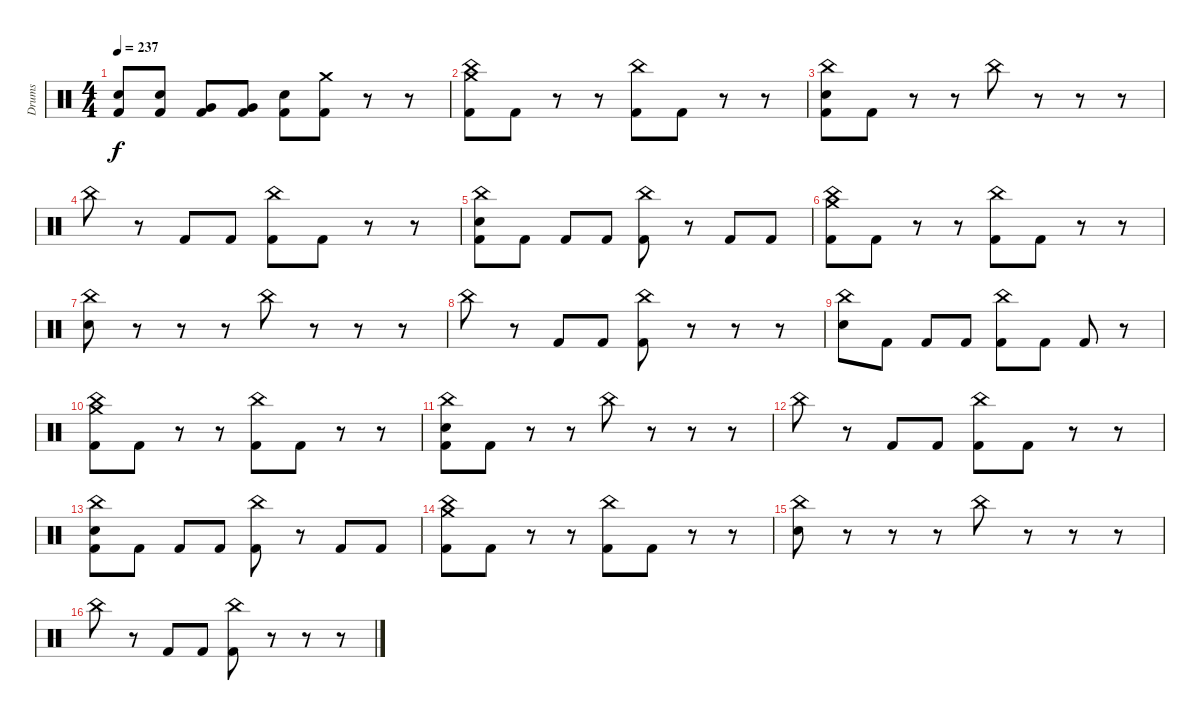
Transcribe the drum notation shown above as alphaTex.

\track ("Drums" "Drums") {instrument percussion}
\staff {score}
\articulation defaults
\ts (4 4)
\tempo 237
\clef neutral
\ks c
("Electric Snare (hit)" "Kick (hit) 2").8{dy f} ("Electric Snare (hit)" "Kick (hit) 2").8 ("Very Low Tom (hit)" "Kick (hit) 2").8 ("Very Low Tom (hit)" "Kick (hit) 2").8 ("Electric Snare (hit)" "Kick (hit) 2").8 ("Crash medium (hit)" "Kick (hit) 2").8 r.8 r.8 |
("Crash medium (hit)" "China (hit)" "Kick (hit) 2").8 "Kick (hit) 2".8 r.8 r.8 ("China (hit)" "Kick (hit) 2").8 "Kick (hit) 2".8 r.8 r.8 |
("China (hit)" "Electric Snare (hit)" "Kick (hit) 2").8 "Kick (hit) 2".8 r.8 r.8 "China (hit)".8 r.8 r.8 r.8 |
"China (hit)".8 r.8 "Kick (hit) 2".8 "Kick (hit) 2".8 ("China (hit)" "Kick (hit) 2").8 "Kick (hit) 2".8 r.8 r.8 |
("China (hit)" "Electric Snare (hit)" "Kick (hit) 2").8 "Kick (hit) 2".8 "Kick (hit) 2".8 "Kick (hit) 2".8 ("China (hit)" "Kick (hit) 2").8 r.8 "Kick (hit) 2".8 "Kick (hit) 2".8 |
("Crash medium (hit)" "China (hit)" "Kick (hit) 2").8 "Kick (hit) 2".8 r.8 r.8 ("China (hit)" "Kick (hit) 2").8 "Kick (hit) 2".8 r.8 r.8 |
("China (hit)" "Electric Snare (hit)").8 r.8 r.8 r.8 "China (hit)".8 r.8 r.8 r.8 |
"China (hit)".8 r.8 "Kick (hit) 2".8 "Kick (hit) 2".8 ("China (hit)" "Kick (hit) 2").8 r.8 r.8 r.8 |
("China (hit)" "Electric Snare (hit)").8 "Kick (hit) 2".8 "Kick (hit) 2".8 "Kick (hit) 2".8 ("China (hit)" "Kick (hit) 2").8 "Kick (hit) 2".8 "Kick (hit) 2".8 r.8 |
("Crash medium (hit)" "China (hit)" "Kick (hit) 2").8 "Kick (hit) 2".8 r.8 r.8 ("China (hit)" "Kick (hit) 2").8 "Kick (hit) 2".8 r.8 r.8 |
("China (hit)" "Electric Snare (hit)" "Kick (hit) 2").8 "Kick (hit) 2".8 r.8 r.8 "China (hit)".8 r.8 r.8 r.8 |
"China (hit)".8 r.8 "Kick (hit) 2".8 "Kick (hit) 2".8 ("China (hit)" "Kick (hit) 2").8 "Kick (hit) 2".8 r.8 r.8 |
("China (hit)" "Electric Snare (hit)" "Kick (hit) 2").8 "Kick (hit) 2".8 "Kick (hit) 2".8 "Kick (hit) 2".8 ("China (hit)" "Kick (hit) 2").8 r.8 "Kick (hit) 2".8 "Kick (hit) 2".8 |
("Crash medium (hit)" "China (hit)" "Kick (hit) 2").8 "Kick (hit) 2".8 r.8 r.8 ("China (hit)" "Kick (hit) 2").8 "Kick (hit) 2".8 r.8 r.8 |
("China (hit)" "Electric Snare (hit)").8 r.8 r.8 r.8 "China (hit)".8 r.8 r.8 r.8 |
"China (hit)".8 r.8 "Kick (hit) 2".8 "Kick (hit) 2".8 ("China (hit)" "Kick (hit) 2").8 r.8 r.8 r.8
